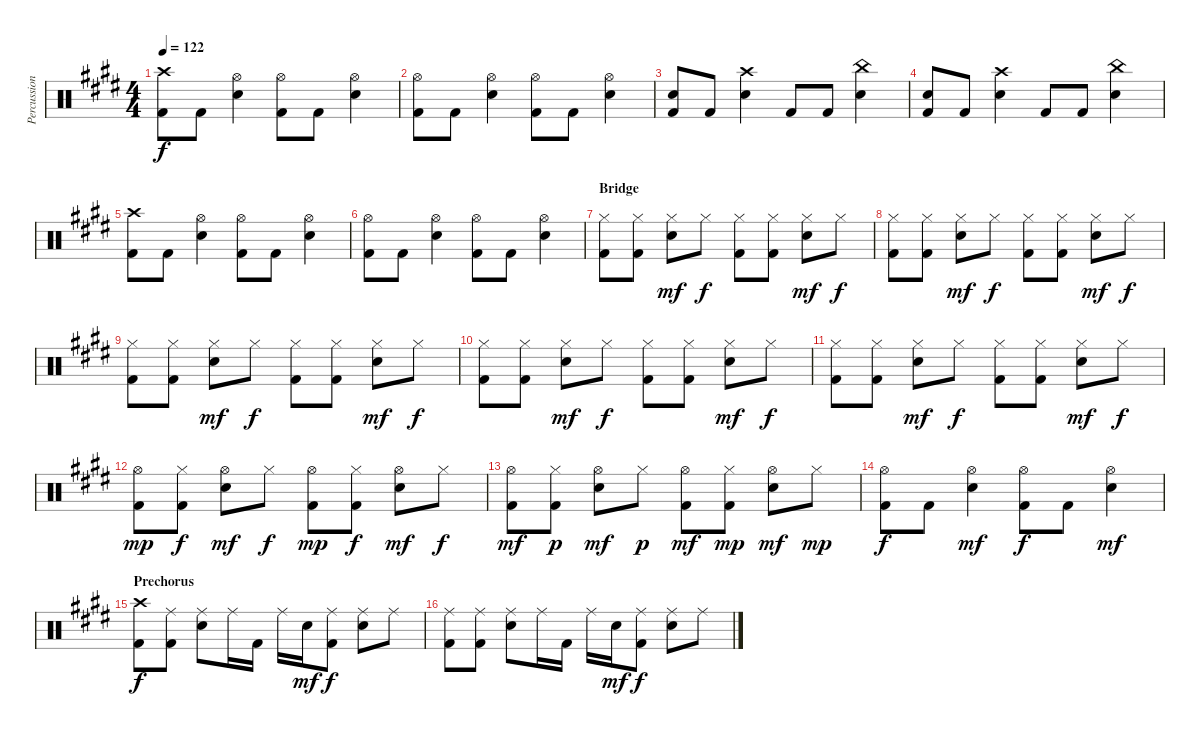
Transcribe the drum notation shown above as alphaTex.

\track ("Percussion" "Percussion") {instrument percussion}
\staff {score}
\articulation defaults
\ts (4 4)
\tempo 122
\clef neutral
\ks e
("Crash high (hit)" "Kick (hit) 2").8{dy f} "Kick (hit) 2".8 ("Hi-Hat (open)" "Snare (hit) 2").4 ("Hi-Hat (open)" "Kick (hit) 2").8 "Kick (hit) 2".8 ("Hi-Hat (open)" "Snare (hit) 2").4 |
("Hi-Hat (open)" "Kick (hit) 2").8 "Kick (hit) 2".8 ("Hi-Hat (open)" "Snare (hit) 2").4 ("Hi-Hat (open)" "Kick (hit) 2").8 "Kick (hit) 2".8 ("Hi-Hat (open)" "Snare (hit) 2").4 |
("Snare (hit) 2" "Kick (hit) 2").8 "Kick (hit) 2".8 ("Crash high (hit)" "Snare (hit) 2").4 "Kick (hit) 2".8 "Kick (hit) 2".8 ("China (hit)" "Snare (hit) 2").4 |
("Snare (hit) 2" "Kick (hit) 2").8 "Kick (hit) 2".8 ("Crash high (hit)" "Snare (hit) 2").4 "Kick (hit) 2".8 "Kick (hit) 2".8 ("China (hit)" "Snare (hit) 2").4 |
("Crash high (hit)" "Kick (hit) 2").8 "Kick (hit) 2".8 ("Hi-Hat (open)" "Snare (hit) 2").4 ("Hi-Hat (open)" "Kick (hit) 2").8 "Kick (hit) 2".8 ("Hi-Hat (open)" "Snare (hit) 2").4 |
("Hi-Hat (open)" "Kick (hit) 2").8 "Kick (hit) 2".8 ("Hi-Hat (open)" "Snare (hit) 2").4 ("Hi-Hat (open)" "Kick (hit) 2").8 "Kick (hit) 2".8 ("Hi-Hat (open)" "Snare (hit) 2").4 |
\section ("" "Bridge")
("Hi-Hat (closed)" "Kick (hit) 2").8{volume 9} ("Hi-Hat (closed)" "Kick (hit) 2").8 ("Hi-Hat (closed)" "Snare (hit) 2").8{dy mf} "Hi-Hat (closed)".8{dy f} ("Hi-Hat (closed)" "Kick (hit) 2").8 ("Hi-Hat (closed)" "Kick (hit) 2").8 ("Hi-Hat (closed)" "Snare (hit) 2").8{dy mf} "Hi-Hat (closed)".8{dy f} |
("Hi-Hat (closed)" "Kick (hit) 2").8 ("Hi-Hat (closed)" "Kick (hit) 2").8 ("Hi-Hat (closed)" "Snare (hit) 2").8{dy mf} "Hi-Hat (closed)".8{dy f} ("Hi-Hat (closed)" "Kick (hit) 2").8 ("Hi-Hat (closed)" "Kick (hit) 2").8 ("Hi-Hat (closed)" "Snare (hit) 2").8{dy mf} "Hi-Hat (closed)".8{dy f} |
("Hi-Hat (closed)" "Kick (hit) 2").8 ("Hi-Hat (closed)" "Kick (hit) 2").8 ("Hi-Hat (closed)" "Snare (hit) 2").8{dy mf} "Hi-Hat (closed)".8{dy f} ("Hi-Hat (closed)" "Kick (hit) 2").8 ("Hi-Hat (closed)" "Kick (hit) 2").8 ("Hi-Hat (closed)" "Snare (hit) 2").8{dy mf} "Hi-Hat (closed)".8{dy f} |
("Hi-Hat (closed)" "Kick (hit) 2").8 ("Hi-Hat (closed)" "Kick (hit) 2").8 ("Hi-Hat (closed)" "Snare (hit) 2").8{dy mf} "Hi-Hat (closed)".8{dy f} ("Hi-Hat (closed)" "Kick (hit) 2").8 ("Hi-Hat (closed)" "Kick (hit) 2").8 ("Hi-Hat (closed)" "Snare (hit) 2").8{dy mf} "Hi-Hat (closed)".8{dy f} |
("Hi-Hat (closed)" "Kick (hit) 2").8{volume 12} ("Hi-Hat (closed)" "Kick (hit) 2").8 ("Hi-Hat (closed)" "Snare (hit) 2").8{dy mf} "Hi-Hat (closed)".8{dy f} ("Hi-Hat (closed)" "Kick (hit) 2").8 ("Hi-Hat (closed)" "Kick (hit) 2").8 ("Hi-Hat (closed)" "Snare (hit) 2").8{dy mf} "Hi-Hat (closed)".8{dy f} |
("Hi-Hat (open)" "Kick (hit) 2").8{dy mp} ("Hi-Hat (closed)" "Kick (hit) 2").8{dy f} ("Hi-Hat (open)" "Snare (hit) 2").8{dy mf} "Hi-Hat (closed)".8{dy f} ("Hi-Hat (open)" "Kick (hit) 2").8{dy mp} ("Hi-Hat (closed)" "Kick (hit) 2").8{dy f} ("Hi-Hat (open)" "Snare (hit) 2").8{dy mf} "Hi-Hat (closed)".8{dy f} |
("Hi-Hat (open)" "Kick (hit) 2").8{dy mf} ("Hi-Hat (closed)" "Kick (hit) 2").8{dy p} ("Hi-Hat (open)" "Snare (hit) 2").8{dy mf} "Hi-Hat (closed)".8{dy p} ("Hi-Hat (open)" "Kick (hit) 2").8{dy mf} ("Hi-Hat (closed)" "Kick (hit) 2").8{dy mp} ("Hi-Hat (open)" "Snare (hit) 2").8{dy mf} "Hi-Hat (closed)".8{dy mp} |
("Hi-Hat (open)" "Kick (hit) 2").8{dy f} "Kick (hit) 2".8 ("Hi-Hat (open)" "Snare (hit) 2").4{dy mf} ("Hi-Hat (open)" "Kick (hit) 2").8{dy f} "Kick (hit) 2".8 ("Hi-Hat (open)" "Snare (hit) 2").4{dy mf} |
\section ("" "Prechorus")
("Crash high (hit)" "Kick (hit) 2").8{dy f} ("Ride (middle)" "Kick (hit) 2").8 ("Ride (middle)" "Snare (hit) 2").8 "Ride (middle)".16 "Kick (hit) 2".16 "Ride (middle)".16 "Snare (hit) 2".16{dy mf} ("Ride (middle)" "Kick (hit) 2").8{dy f} ("Ride (middle)" "Snare (hit) 2").8 "Ride (middle)".8 |
("Ride (middle)" "Kick (hit) 2").8 ("Ride (middle)" "Kick (hit) 2").8 ("Ride (middle)" "Snare (hit) 2").8 "Ride (middle)".16 "Kick (hit) 2".16 "Ride (middle)".16 "Snare (hit) 2".16{dy mf} ("Ride (middle)" "Kick (hit) 2").8{dy f} ("Ride (middle)" "Snare (hit) 2").8 "Ride (middle)".8
